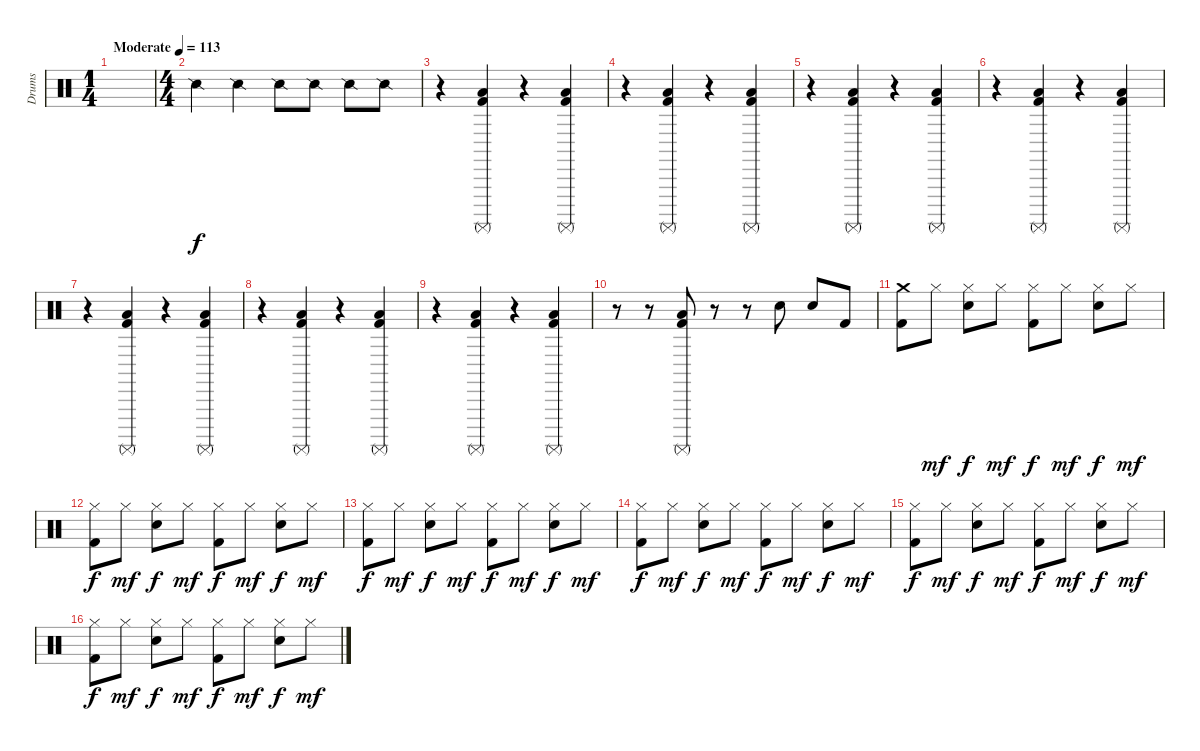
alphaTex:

\track ("Drums" "Drums") {instrument percussion}
\staff {score}
\articulation defaults
\ts (1 4)
\tempo (113 "Moderate")
\clef neutral
\ks c
|
\ts (4 4)
"Snare (side stick) 2".4 "Snare (side stick) 2".4 "Snare (side stick) 2".8 "Snare (side stick) 2".8 "Snare (side stick) 2".8 "Snare (side stick) 2".8 |
r.4 ("Surdo (mute)" "Low Floor Tom (hit)" "Kick (hit) 2").4 r.4 ("Surdo (mute)" "Low Floor Tom (hit)" "Kick (hit) 2").4 |
r.4 ("Surdo (mute)" "Low Floor Tom (hit)" "Kick (hit) 2").4 r.4 ("Surdo (mute)" "Low Floor Tom (hit)" "Kick (hit) 2").4 |
r.4 ("Surdo (mute)" "Low Floor Tom (hit)" "Kick (hit) 2").4 r.4 ("Surdo (mute)" "Low Floor Tom (hit)" "Kick (hit) 2").4 |
r.4 ("Surdo (mute)" "Low Floor Tom (hit)" "Kick (hit) 2").4 r.4 ("Surdo (mute)" "Low Floor Tom (hit)" "Kick (hit) 2").4 |
r.4 ("Surdo (mute)" "Low Floor Tom (hit)" "Kick (hit) 2").4 r.4 ("Surdo (mute)" "Low Floor Tom (hit)" "Kick (hit) 2").4 |
r.4 ("Surdo (mute)" "Low Floor Tom (hit)" "Kick (hit) 2").4 r.4 ("Surdo (mute)" "Low Floor Tom (hit)" "Kick (hit) 2").4 |
r.4 ("Surdo (mute)" "Low Floor Tom (hit)" "Kick (hit) 2").4 r.4 ("Surdo (mute)" "Low Floor Tom (hit)" "Kick (hit) 2").4 |
r.8 r.8 ("Surdo (mute)" "Low Floor Tom (hit)" "Kick (hit) 2").8 r.8 r.8 "Snare (hit) 2".8 "Snare (hit) 2".8 "Kick (hit) 2".8 |
("Crash medium (hit)" "Kick (hit) 2").8 "Hi-Hat (closed)".8{dy mf} ("Hi-Hat (closed)" "Snare (hit) 2").8{dy f} "Hi-Hat (closed)".8{dy mf} ("Hi-Hat (closed)" "Kick (hit) 2").8{dy f} "Hi-Hat (closed)".8{dy mf} ("Hi-Hat (closed)" "Snare (hit) 2").8{dy f} "Hi-Hat (closed)".8{dy mf} |
("Hi-Hat (closed)" "Kick (hit) 2").8{dy f} "Hi-Hat (closed)".8{dy mf} ("Hi-Hat (closed)" "Snare (hit) 2").8{dy f} "Hi-Hat (closed)".8{dy mf} ("Hi-Hat (closed)" "Kick (hit) 2").8{dy f} "Hi-Hat (closed)".8{dy mf} ("Hi-Hat (closed)" "Snare (hit) 2").8{dy f} "Hi-Hat (closed)".8{dy mf} |
("Hi-Hat (closed)" "Kick (hit) 2").8{dy f} "Hi-Hat (closed)".8{dy mf} ("Hi-Hat (closed)" "Snare (hit) 2").8{dy f} "Hi-Hat (closed)".8{dy mf} ("Hi-Hat (closed)" "Kick (hit) 2").8{dy f} "Hi-Hat (closed)".8{dy mf} ("Hi-Hat (closed)" "Snare (hit) 2").8{dy f} "Hi-Hat (closed)".8{dy mf} |
("Hi-Hat (closed)" "Kick (hit) 2").8{dy f} "Hi-Hat (closed)".8{dy mf} ("Hi-Hat (closed)" "Snare (hit) 2").8{dy f} "Hi-Hat (closed)".8{dy mf} ("Hi-Hat (closed)" "Kick (hit) 2").8{dy f} "Hi-Hat (closed)".8{dy mf} ("Hi-Hat (closed)" "Snare (hit) 2").8{dy f} "Hi-Hat (closed)".8{dy mf} |
("Hi-Hat (closed)" "Kick (hit) 2").8{dy f} "Hi-Hat (closed)".8{dy mf} ("Hi-Hat (closed)" "Snare (hit) 2").8{dy f} "Hi-Hat (closed)".8{dy mf} ("Hi-Hat (closed)" "Kick (hit) 2").8{dy f} "Hi-Hat (closed)".8{dy mf} ("Hi-Hat (closed)" "Snare (hit) 2").8{dy f} "Hi-Hat (closed)".8{dy mf} |
("Hi-Hat (closed)" "Kick (hit) 2").8{dy f} "Hi-Hat (closed)".8{dy mf} ("Hi-Hat (closed)" "Snare (hit) 2").8{dy f} "Hi-Hat (closed)".8{dy mf} ("Hi-Hat (closed)" "Kick (hit) 2").8{dy f} "Hi-Hat (closed)".8{dy mf} ("Hi-Hat (closed)" "Snare (hit) 2").8{dy f} "Hi-Hat (closed)".8{dy mf}
